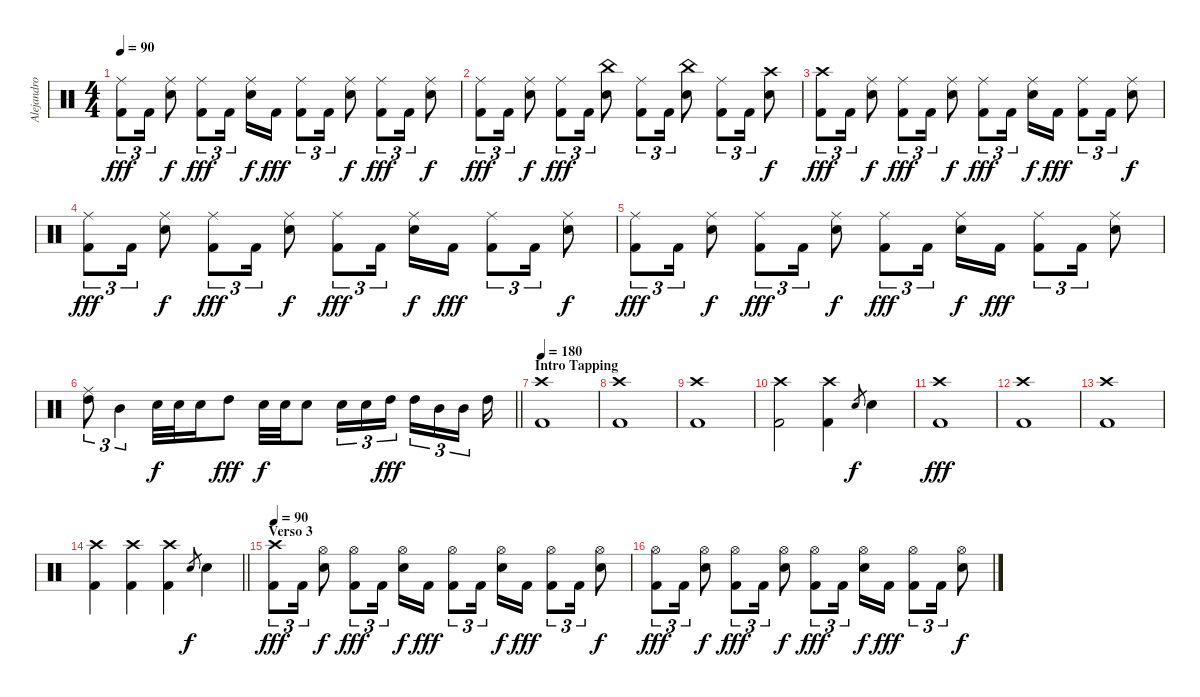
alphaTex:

\track ("Alejandro Gutiérrez" "Alejandro ") {instrument percussion}
\staff {score}
\articulation defaults
\ts (4 4)
\tempo 90
\clef neutral
\ks c
("Ride (middle)" "Kick (hit) 2").8{tu (3 2) dy fff} "Kick (hit) 2".16{tu (3 2)} ("Ride (middle)" "Electric Snare (hit)").8{dy f} ("Ride (middle)" "Kick (hit) 2").8{tu (3 2) dy fff} "Kick (hit) 2".16{tu (3 2) beam splitsecondary} ("Ride (middle)" "Electric Snare (hit)").16{dy f} "Kick (hit) 2".16{dy fff} ("Ride (middle)" "Kick (hit) 2").8{tu (3 2)} "Kick (hit) 2".16{tu (3 2)} ("Ride (middle)" "Electric Snare (hit)").8{dy f} ("Ride (middle)" "Kick (hit) 2").8{tu (3 2) dy fff} "Kick (hit) 2".16{tu (3 2)} ("Ride (middle)" "Electric Snare (hit)").8{dy f} |
("Ride (middle)" "Kick (hit) 2").8{tu (3 2) dy fff} "Kick (hit) 2".16{tu (3 2)} ("Ride (middle)" "Electric Snare (hit)").8{dy f} ("Ride (middle)" "Kick (hit) 2").8{tu (3 2) dy fff} "Kick (hit) 2".16{tu (3 2)} ("China (hit)" "Electric Snare (hit)").8 ("Ride (middle)" "Kick (hit) 2").8{tu (3 2)} "Kick (hit) 2".16{tu (3 2)} ("China (hit)" "Electric Snare (hit)").8 ("Ride (middle)" "Kick (hit) 2").8{tu (3 2)} "Kick (hit) 2".16{tu (3 2)} ("Crash high (hit)" "Electric Snare (hit)").8{dy f} |
("Crash high (hit)" "Kick (hit) 2").8{tu (3 2) dy fff} "Kick (hit) 2".16{tu (3 2)} ("Ride (middle)" "Electric Snare (hit)").8{dy f} ("Ride (middle)" "Kick (hit) 2").8{tu (3 2) dy fff} "Kick (hit) 2".16{tu (3 2)} ("Ride (middle)" "Electric Snare (hit)").8{dy f} ("Ride (middle)" "Kick (hit) 2").8{tu (3 2) dy fff} "Kick (hit) 2".16{tu (3 2) beam splitsecondary} ("Ride (middle)" "Electric Snare (hit)").16{dy f} "Kick (hit) 2".16{dy fff} ("Ride (middle)" "Kick (hit) 2").8{tu (3 2)} "Kick (hit) 2".16{tu (3 2)} ("Ride (middle)" "Electric Snare (hit)").8{dy f} |
("Ride (middle)" "Kick (hit) 2").8{tu (3 2) dy fff} "Kick (hit) 2".16{tu (3 2)} ("Ride (middle)" "Electric Snare (hit)").8{dy f} ("Ride (middle)" "Kick (hit) 2").8{tu (3 2) dy fff} "Kick (hit) 2".16{tu (3 2)} ("Ride (middle)" "Electric Snare (hit)").8{dy f} ("Ride (middle)" "Kick (hit) 2").8{tu (3 2) dy fff} "Kick (hit) 2".16{tu (3 2) beam splitsecondary} ("Ride (middle)" "Electric Snare (hit)").16{dy f} "Kick (hit) 2".16{dy fff} ("Ride (middle)" "Kick (hit) 2").8{tu (3 2)} "Kick (hit) 2".16{tu (3 2)} ("Ride (middle)" "Electric Snare (hit)").8{dy f} |
("Ride (middle)" "Kick (hit) 2").8{tu (3 2) dy fff} "Kick (hit) 2".16{tu (3 2)} ("Ride (middle)" "Electric Snare (hit)").8{dy f} ("Ride (middle)" "Kick (hit) 2").8{tu (3 2) dy fff} "Kick (hit) 2".16{tu (3 2)} ("Ride (middle)" "Electric Snare (hit)").8{dy f} ("Ride (middle)" "Kick (hit) 2").8{tu (3 2) dy fff} "Kick (hit) 2".16{tu (3 2) beam splitsecondary} ("Ride (middle)" "Electric Snare (hit)").16{dy f} "Kick (hit) 2".16{dy fff} ("Ride (middle)" "Kick (hit) 2").8{tu (3 2)} "Kick (hit) 2".16{tu (3 2)} ("Ride (middle)" "Electric Snare (hit)").8 |
\barLineRight lightlight
("Ride (middle)" "High Tom (hit)").8{tu (3 2)} "Mid Tom (hit)".4{tu (3 2)} "Electric Snare (hit)".32{dy f} "Electric Snare (hit)".32 "Electric Snare (hit)".16 "High Tom (hit)".8{dy fff} "Electric Snare (hit)".32{dy f} "Electric Snare (hit)".32 "Electric Snare (hit)".8 "Electric Snare (hit)".16{tu (3 2)} "Electric Snare (hit)".16{tu (3 2)} "High Tom (hit)".16{tu (3 2) dy fff beam splitsecondary} "High Tom (hit)".16{tu (3 2)} "Mid Tom (hit)".16{tu (3 2)} "Mid Tom (hit)".16{tu (3 2) beam splitsecondary} "High Tom (hit)".16 |
\section ("" "Intro Tapping")
\tempo 180
("Crash high (hit)" "Kick (hit) 2").1 |
("Crash high (hit)" "Kick (hit) 2").1 |
("Crash high (hit)" "Kick (hit) 2").1 |
("Crash high (hit)" "Kick (hit) 2").2 ("Crash high (hit)" "Kick (hit) 2").4 "Electric Snare (hit)".8{gr dy f} "Electric Snare (hit)".4 |
("Crash high (hit)" "Kick (hit) 2").1{dy fff} |
("Crash high (hit)" "Kick (hit) 2").1 |
("Crash high (hit)" "Kick (hit) 2").1 |
\barLineRight lightlight
("Crash high (hit)" "Kick (hit) 2").4 ("Crash high (hit)" "Kick (hit) 2").4 ("Crash high (hit)" "Kick (hit) 2").4 "Electric Snare (hit)".8{gr dy f} "Electric Snare (hit)".4 |
\section ("" "Verso 3")
\tempo 90
("Crash high (hit)" "Kick (hit) 2").8{tu (3 2) dy fff} "Kick (hit) 2".16{tu (3 2)} ("Hi-Hat (open)" "Electric Snare (hit)").8{dy f} ("Hi-Hat (open)" "Kick (hit) 2").8{tu (3 2) dy fff} "Kick (hit) 2".16{tu (3 2) beam splitsecondary} ("Hi-Hat (open)" "Electric Snare (hit)").16{dy f} "Kick (hit) 2".16{dy fff} ("Hi-Hat (open)" "Kick (hit) 2").8{tu (3 2)} "Kick (hit) 2".16{tu (3 2) beam splitsecondary} ("Hi-Hat (open)" "Electric Snare (hit)").16{dy f} "Kick (hit) 2".16{dy fff} ("Hi-Hat (open)" "Kick (hit) 2").8{tu (3 2)} "Kick (hit) 2".16{tu (3 2)} ("Hi-Hat (open)" "Electric Snare (hit)").8{dy f} |
("Hi-Hat (open)" "Kick (hit) 2").8{tu (3 2) dy fff} "Kick (hit) 2".16{tu (3 2)} ("Hi-Hat (open)" "Electric Snare (hit)").8{dy f} ("Hi-Hat (open)" "Kick (hit) 2").8{tu (3 2) dy fff} "Kick (hit) 2".16{tu (3 2)} ("Hi-Hat (open)" "Electric Snare (hit)").8{dy f} ("Hi-Hat (open)" "Kick (hit) 2").8{tu (3 2) dy fff} "Kick (hit) 2".16{tu (3 2) beam splitsecondary} ("Hi-Hat (open)" "Electric Snare (hit)").16{dy f} "Kick (hit) 2".16{dy fff} ("Hi-Hat (open)" "Kick (hit) 2").8{tu (3 2)} "Kick (hit) 2".16{tu (3 2)} ("Hi-Hat (open)" "Electric Snare (hit)").8{dy f}
